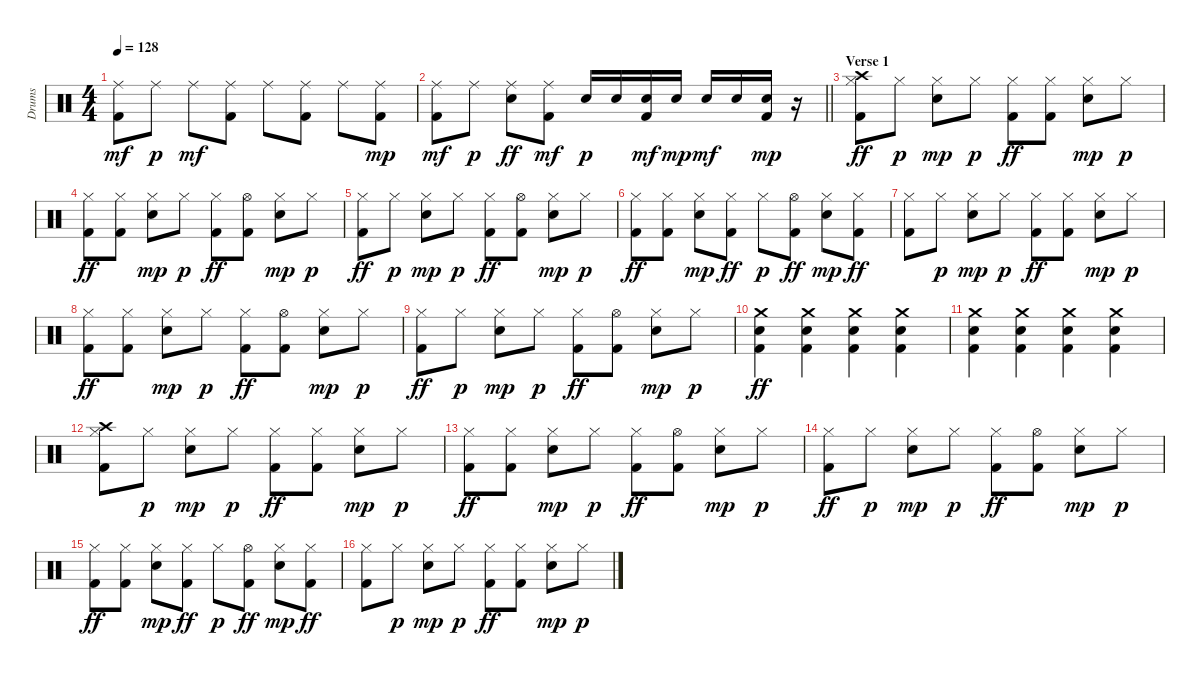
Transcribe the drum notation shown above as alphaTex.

\track ("Drums" "Drums") {instrument percussion}
\staff {score}
\articulation defaults
\ts (4 4)
\tempo 128
\clef neutral
\ks c
("Ride (middle)" "Kick (hit) 2").8{dy mf} "Ride (middle)".8{dy p} "Ride (middle)".8{dy mf} ("Ride (middle)" "Kick (hit) 2").8 "Ride (middle)".8 ("Ride (middle)" "Kick (hit) 2").8 "Ride (middle)".8 ("Ride (middle)" "Kick (hit) 2").8{dy mp} |
\barLineRight lightlight
("Ride (middle)" "Kick (hit) 2").8{dy mf} "Ride (middle)".8{dy p} ("Ride (middle)" "Snare (hit) 2").8{dy ff} ("Ride (middle)" "Kick (hit) 2").8{dy mf} "Snare (hit) 2".16{dy p} "Snare (hit) 2".16 ("Snare (hit) 2" "Kick (hit) 2").16{dy mf} "Snare (hit) 2".16{dy mp} "Snare (hit) 2".16{dy mf} "Snare (hit) 2".16 ("Snare (hit) 2" "Kick (hit) 2").16{dy mp} r.16 |
\section ("" "Verse 1")
("Crash high (hit)" "Hi-Hat (closed)" "Kick (hit) 2").8{dy ff} "Hi-Hat (closed)".8{dy p} ("Hi-Hat (closed)" "Snare (hit) 2").8{dy mp} "Hi-Hat (closed)".8{dy p} ("Hi-Hat (closed)" "Kick (hit) 2").8{dy ff} ("Hi-Hat (closed)" "Kick (hit) 2").8 ("Hi-Hat (closed)" "Snare (hit) 2").8{dy mp} "Hi-Hat (closed)".8{dy p} |
("Hi-Hat (closed)" "Kick (hit) 2").8{dy ff} ("Hi-Hat (closed)" "Kick (hit) 2").8 ("Hi-Hat (closed)" "Snare (hit) 2").8{dy mp} "Hi-Hat (closed)".8{dy p} ("Hi-Hat (closed)" "Kick (hit) 2").8{dy ff} ("Hi-Hat (open)" "Kick (hit) 2").8 ("Hi-Hat (closed)" "Snare (hit) 2").8{dy mp} "Hi-Hat (closed)".8{dy p} |
("Hi-Hat (closed)" "Kick (hit) 2").8{dy ff} "Hi-Hat (closed)".8{dy p} ("Hi-Hat (closed)" "Snare (hit) 2").8{dy mp} "Hi-Hat (closed)".8{dy p} ("Hi-Hat (closed)" "Kick (hit) 2").8{dy ff} ("Hi-Hat (open)" "Kick (hit) 2").8 ("Hi-Hat (closed)" "Snare (hit) 2").8{dy mp} "Hi-Hat (closed)".8{dy p} |
("Hi-Hat (closed)" "Kick (hit) 2").8{dy ff} ("Hi-Hat (closed)" "Kick (hit) 2").8 ("Hi-Hat (closed)" "Snare (hit) 2").8{dy mp} ("Hi-Hat (closed)" "Kick (hit) 2").8{dy ff} "Hi-Hat (closed)".8{dy p} ("Hi-Hat (open)" "Kick (hit) 2").8{dy ff} ("Hi-Hat (closed)" "Snare (hit) 2").8{dy mp} ("Hi-Hat (closed)" "Kick (hit) 2").8{dy ff} |
("Hi-Hat (closed)" "Kick (hit) 2").8 "Hi-Hat (closed)".8{dy p} ("Hi-Hat (closed)" "Snare (hit) 2").8{dy mp} "Hi-Hat (closed)".8{dy p} ("Hi-Hat (closed)" "Kick (hit) 2").8{dy ff} ("Hi-Hat (closed)" "Kick (hit) 2").8 ("Hi-Hat (closed)" "Snare (hit) 2").8{dy mp} "Hi-Hat (closed)".8{dy p} |
("Hi-Hat (closed)" "Kick (hit) 2").8{dy ff} ("Hi-Hat (closed)" "Kick (hit) 2").8 ("Hi-Hat (closed)" "Snare (hit) 2").8{dy mp} "Hi-Hat (closed)".8{dy p} ("Hi-Hat (closed)" "Kick (hit) 2").8{dy ff} ("Hi-Hat (open)" "Kick (hit) 2").8 ("Hi-Hat (closed)" "Snare (hit) 2").8{dy mp} "Hi-Hat (closed)".8{dy p} |
("Hi-Hat (closed)" "Kick (hit) 2").8{dy ff} "Hi-Hat (closed)".8{dy p} ("Hi-Hat (closed)" "Snare (hit) 2").8{dy mp} "Hi-Hat (closed)".8{dy p} ("Hi-Hat (closed)" "Kick (hit) 2").8{dy ff} ("Hi-Hat (open)" "Kick (hit) 2").8 ("Hi-Hat (closed)" "Snare (hit) 2").8{dy mp} "Hi-Hat (closed)".8{dy p} |
("Crash medium (hit)" "Snare (hit) 2" "Kick (hit) 2").4{dy ff} ("Crash medium (hit)" "Snare (hit) 2" "Kick (hit) 2").4 ("Crash medium (hit)" "Snare (hit) 2" "Kick (hit) 2").4 ("Crash medium (hit)" "Snare (hit) 2" "Kick (hit) 2").4 |
("Crash medium (hit)" "Snare (hit) 2" "Kick (hit) 2").4 ("Crash medium (hit)" "Snare (hit) 2" "Kick (hit) 2").4 ("Crash medium (hit)" "Snare (hit) 2" "Kick (hit) 2").4 ("Crash medium (hit)" "Snare (hit) 2" "Kick (hit) 2").4 |
("Crash high (hit)" "Hi-Hat (closed)" "Kick (hit) 2").8 "Hi-Hat (closed)".8{dy p} ("Hi-Hat (closed)" "Snare (hit) 2").8{dy mp} "Hi-Hat (closed)".8{dy p} ("Hi-Hat (closed)" "Kick (hit) 2").8{dy ff} ("Hi-Hat (closed)" "Kick (hit) 2").8 ("Hi-Hat (closed)" "Snare (hit) 2").8{dy mp} "Hi-Hat (closed)".8{dy p} |
("Hi-Hat (closed)" "Kick (hit) 2").8{dy ff} ("Hi-Hat (closed)" "Kick (hit) 2").8 ("Hi-Hat (closed)" "Snare (hit) 2").8{dy mp} "Hi-Hat (closed)".8{dy p} ("Hi-Hat (closed)" "Kick (hit) 2").8{dy ff} ("Hi-Hat (open)" "Kick (hit) 2").8 ("Hi-Hat (closed)" "Snare (hit) 2").8{dy mp} "Hi-Hat (closed)".8{dy p} |
("Hi-Hat (closed)" "Kick (hit) 2").8{dy ff} "Hi-Hat (closed)".8{dy p} ("Hi-Hat (closed)" "Snare (hit) 2").8{dy mp} "Hi-Hat (closed)".8{dy p} ("Hi-Hat (closed)" "Kick (hit) 2").8{dy ff} ("Hi-Hat (open)" "Kick (hit) 2").8 ("Hi-Hat (closed)" "Snare (hit) 2").8{dy mp} "Hi-Hat (closed)".8{dy p} |
("Hi-Hat (closed)" "Kick (hit) 2").8{dy ff} ("Hi-Hat (closed)" "Kick (hit) 2").8 ("Hi-Hat (closed)" "Snare (hit) 2").8{dy mp} ("Hi-Hat (closed)" "Kick (hit) 2").8{dy ff} "Hi-Hat (closed)".8{dy p} ("Hi-Hat (open)" "Kick (hit) 2").8{dy ff} ("Hi-Hat (closed)" "Snare (hit) 2").8{dy mp} ("Hi-Hat (closed)" "Kick (hit) 2").8{dy ff} |
("Hi-Hat (closed)" "Kick (hit) 2").8 "Hi-Hat (closed)".8{dy p} ("Hi-Hat (closed)" "Snare (hit) 2").8{dy mp} "Hi-Hat (closed)".8{dy p} ("Hi-Hat (closed)" "Kick (hit) 2").8{dy ff} ("Hi-Hat (closed)" "Kick (hit) 2").8 ("Hi-Hat (closed)" "Snare (hit) 2").8{dy mp} "Hi-Hat (closed)".8{dy p}
